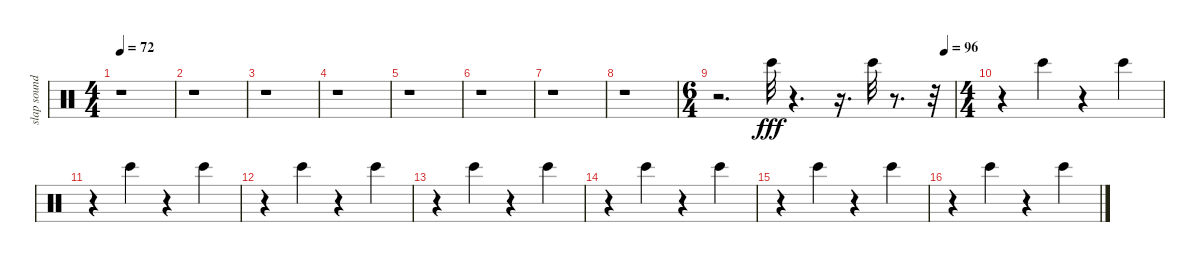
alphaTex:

\track ("slap sound" "slap sound") {instrument percussion}
\staff {score}
\articulation defaults
\ts (4 4)
\tempo 72
\clef neutral
\ks c
r.1{dy fff} |
r.1 |
r.1 |
r.1 |
r.1 |
r.1 |
r.1 |
r.1 |
\ts (6 4)
\tempo (96 0.9583333333333334)
r.2{d} "Bongo High (hit)".32 r.4{d} r.16{d} "Bongo High (hit)".32 r.8{d} r.32 |
\ts (4 4)
r.4 "Bongo High (hit)".4 r.4 "Bongo High (hit)".4 |
r.4 "Bongo High (hit)".4 r.4 "Bongo High (hit)".4 |
r.4 "Bongo High (hit)".4 r.4 "Bongo High (hit)".4 |
r.4 "Bongo High (hit)".4 r.4 "Bongo High (hit)".4 |
r.4 "Bongo High (hit)".4 r.4 "Bongo High (hit)".4 |
r.4 "Bongo High (hit)".4 r.4 "Bongo High (hit)".4 |
r.4 "Bongo High (hit)".4 r.4 "Bongo High (hit)".4
